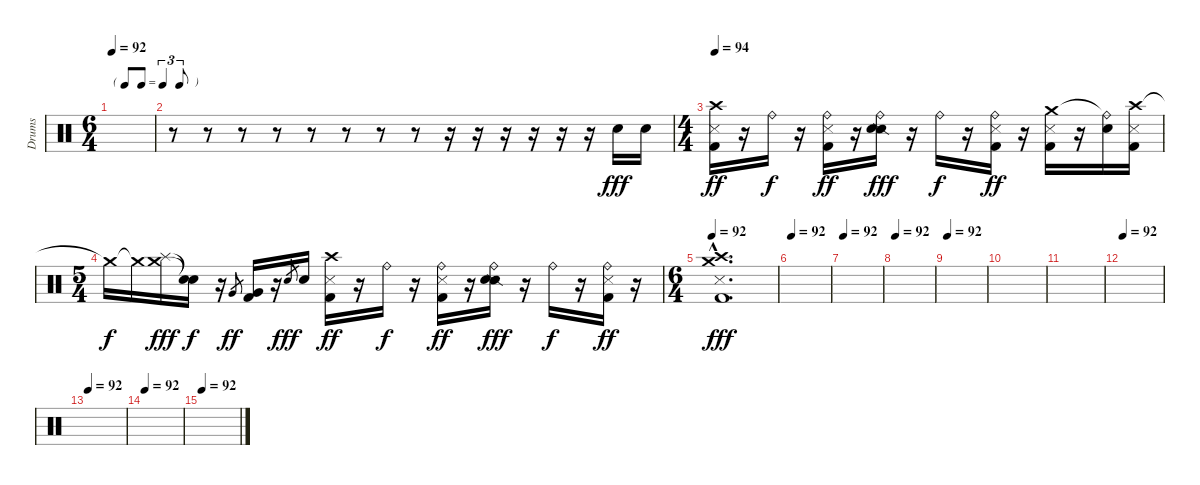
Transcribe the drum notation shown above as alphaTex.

\track ("Drums" "Drums") {instrument percussion}
\staff {score}
\articulation defaults
\ts (6 4)
\tf triplet8th
\tempo 92
\clef neutral
\ks c
|
r.8 r.8 r.8 r.8 r.8 r.8 r.8 r.8 r.16 r.16 r.16 r.16 r.16 r.16 "Electric Snare (hit)".16{dy fff} "Electric Snare (hit)".16 |
\ts (4 4)
\tempo 94
("Crash high (hit)" "Metronome (hit)" "Kick (hit) 2").16{dy ff} r.16 "Ride (bell)".16{dy f} r.16 ("Ride (bell)" "Metronome (hit)" "Kick (hit) 2").16{dy ff} r.16 ("Ride (bell)" "Snare (side stick) 2" "Electric Snare (hit)").16{dy fff} r.16 "Ride (bell)".16{dy f} r.16 ("Ride (bell)" "Metronome (hit)" "Kick (hit) 2").16{dy ff} r.16 ("Crash medium (hit)" "Metronome (hit)" "Kick (hit) 2").16 r.16 ("Ride (bell)"{t} "Electric Snare (hit)").16 ("Crash high (hit)" "Metronome (hit)" "Kick (hit) 2").16 |
\ts (5 4)
"Crash medium (hit)"{t}.16{dy f} "Crash medium (hit)"{t}.16 ("Crash medium (hit)" "Splash (hit)").16{dy fff} ("Snare (hit)"{t} "Snare (hit)"{t}).16{dy f} r.16 "Very Low Tom (hit)".8{gr dy ff} ("Very Low Tom (hit)" "Kick (hit) 2").16 r.16 "Electric Snare (hit)".8{gr dy fff} "Electric Snare (hit)".16 ("Crash high (hit)" "Metronome (hit)" "Kick (hit) 2").16{dy ff} r.16 "Ride (bell)".16{dy f} r.16 ("Ride (bell)" "Metronome (hit)" "Kick (hit) 2").16{dy ff} r.16 ("Ride (bell)" "Snare (side stick) 2" "Electric Snare (hit)").16{dy fff} r.16 "Ride (bell)".16{dy f} r.16 ("Ride (bell)" "Metronome (hit)" "Kick (hit) 2").16{dy ff} r.16 |
\ts (6 4)
\tempo 92
("Crash high (hit)"{hac} "Crash medium (hit)"{hac} "Metronome (hit)"{hac} "Kick (hit) 2"{hac}).1{d dy fff} |
\tempo 92
|
\tempo 92
|
\tempo 92
|
\tempo 92
|
|
|
\tempo 92
|
\tempo 92
|
\tempo 92
|
\tempo 92
